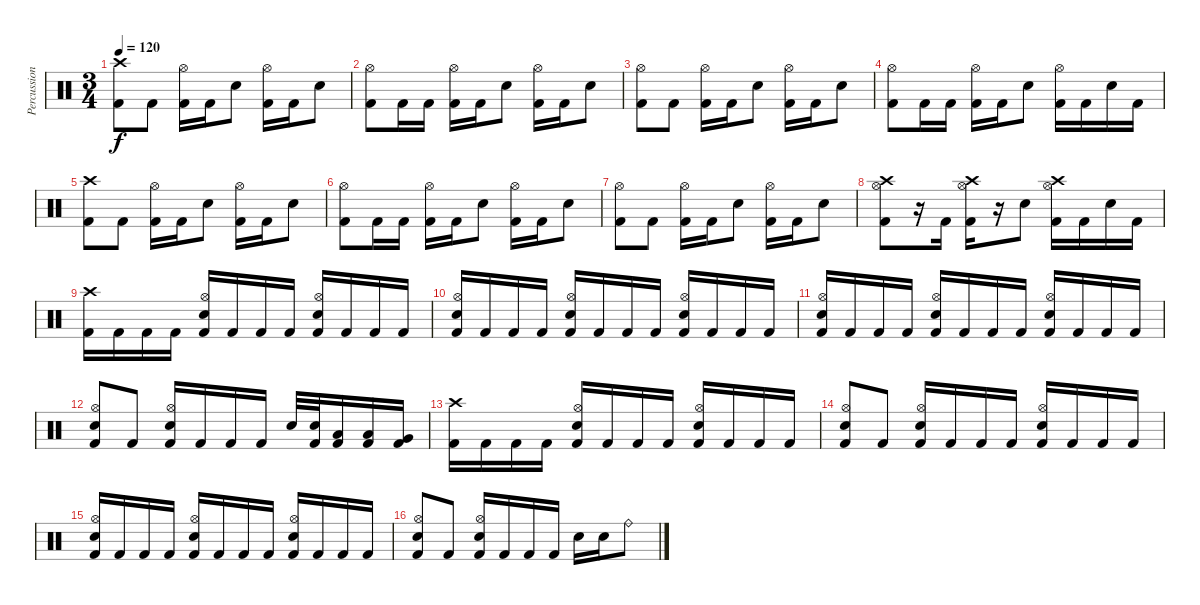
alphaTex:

\track ("Percussion" "Percussion") {instrument percussion}
\staff {score}
\articulation defaults
\ts (3 4)
\tempo 120
\clef neutral
\ks c
("Crash high (hit)" "Kick (hit) 2").8{dy f} "Kick (hit) 2".8 ("Hi-Hat (open)" "Kick (hit) 2").16 "Kick (hit) 2".16 "Electric Snare (hit)".8 ("Hi-Hat (open)" "Kick (hit) 2").16 "Kick (hit) 2".16 "Electric Snare (hit)".8 |
("Hi-Hat (open)" "Kick (hit) 2").8 "Kick (hit) 2".16 "Kick (hit) 2".16 ("Hi-Hat (open)" "Kick (hit) 2").16 "Kick (hit) 2".16 "Electric Snare (hit)".8 ("Hi-Hat (open)" "Kick (hit) 2").16 "Kick (hit) 2".16 "Electric Snare (hit)".8 |
("Hi-Hat (open)" "Kick (hit) 2").8 "Kick (hit) 2".8 ("Hi-Hat (open)" "Kick (hit) 2").16 "Kick (hit) 2".16 "Electric Snare (hit)".8 ("Hi-Hat (open)" "Kick (hit) 2").16 "Kick (hit) 2".16 "Electric Snare (hit)".8 |
("Hi-Hat (open)" "Kick (hit) 2").8 "Kick (hit) 2".16 "Kick (hit) 2".16 ("Hi-Hat (open)" "Kick (hit) 2").16 "Kick (hit) 2".16 "Electric Snare (hit)".8 ("Hi-Hat (open)" "Kick (hit) 2").16 "Kick (hit) 2".16 "Electric Snare (hit)".16 "Kick (hit) 2".16 |
("Crash high (hit)" "Kick (hit) 2").8 "Kick (hit) 2".8 ("Hi-Hat (open)" "Kick (hit) 2").16 "Kick (hit) 2".16 "Electric Snare (hit)".8 ("Hi-Hat (open)" "Kick (hit) 2").16 "Kick (hit) 2".16 "Electric Snare (hit)".8 |
("Hi-Hat (open)" "Kick (hit) 2").8 "Kick (hit) 2".16 "Kick (hit) 2".16 ("Hi-Hat (open)" "Kick (hit) 2").16 "Kick (hit) 2".16 "Electric Snare (hit)".8 ("Hi-Hat (open)" "Kick (hit) 2").16 "Kick (hit) 2".16 "Electric Snare (hit)".8 |
("Hi-Hat (open)" "Kick (hit) 2").8 "Kick (hit) 2".8 ("Hi-Hat (open)" "Kick (hit) 2").16 "Kick (hit) 2".16 "Electric Snare (hit)".8 ("Hi-Hat (open)" "Kick (hit) 2").16 "Kick (hit) 2".16 "Electric Snare (hit)".8 |
("Crash high (hit)" "Hi-Hat (open)" "Kick (hit) 2").8 r.16 "Kick (hit) 2".16 ("Crash high (hit)" "Hi-Hat (open)" "Kick (hit) 2").16 r.16 "Electric Snare (hit)".8 ("Crash high (hit)" "Hi-Hat (open)" "Kick (hit) 2").16 "Kick (hit) 2".16 "Electric Snare (hit)".16 "Kick (hit) 2".16 |
("Crash high (hit)" "Kick (hit) 2").16 "Kick (hit) 2".16 "Kick (hit) 2".16 "Kick (hit) 2".16 ("Hi-Hat (open)" "Electric Snare (hit)" "Kick (hit) 2").16 "Kick (hit) 2".16 "Kick (hit) 2".16 "Kick (hit) 2".16 ("Hi-Hat (open)" "Electric Snare (hit)" "Kick (hit) 2").16 "Kick (hit) 2".16 "Kick (hit) 2".16 "Kick (hit) 2".16 |
("Hi-Hat (open)" "Electric Snare (hit)" "Kick (hit) 2").16 "Kick (hit) 2".16 "Kick (hit) 2".16 "Kick (hit) 2".16 ("Hi-Hat (open)" "Electric Snare (hit)" "Kick (hit) 2").16 "Kick (hit) 2".16 "Kick (hit) 2".16 "Kick (hit) 2".16 ("Hi-Hat (open)" "Electric Snare (hit)" "Kick (hit) 2").16 "Kick (hit) 2".16 "Kick (hit) 2".16 "Kick (hit) 2".16 |
("Hi-Hat (open)" "Electric Snare (hit)" "Kick (hit) 2").16 "Kick (hit) 2".16 "Kick (hit) 2".16 "Kick (hit) 2".16 ("Hi-Hat (open)" "Electric Snare (hit)" "Kick (hit) 2").16 "Kick (hit) 2".16 "Kick (hit) 2".16 "Kick (hit) 2".16 ("Hi-Hat (open)" "Electric Snare (hit)" "Kick (hit) 2").16 "Kick (hit) 2".16 "Kick (hit) 2".16 "Kick (hit) 2".16 |
("Hi-Hat (open)" "Electric Snare (hit)" "Kick (hit) 2").8 "Kick (hit) 2".8 ("Hi-Hat (open)" "Electric Snare (hit)" "Kick (hit) 2").16 "Kick (hit) 2".16 "Kick (hit) 2".16 "Kick (hit) 2".16 "Electric Snare (hit)".32 ("Electric Snare (hit)" "Kick (hit) 2").32 ("Low Tom (hit)" "Kick (hit) 2").16 ("Low Tom (hit)" "Kick (hit) 2").16 ("Very Low Tom (hit)" "Kick (hit) 2").16 |
("Crash high (hit)" "Kick (hit) 2").16 "Kick (hit) 2".16 "Kick (hit) 2".16 "Kick (hit) 2".16 ("Hi-Hat (open)" "Electric Snare (hit)" "Kick (hit) 2").16 "Kick (hit) 2".16 "Kick (hit) 2".16 "Kick (hit) 2".16 ("Hi-Hat (open)" "Electric Snare (hit)" "Kick (hit) 2").16 "Kick (hit) 2".16 "Kick (hit) 2".16 "Kick (hit) 2".16 |
("Hi-Hat (open)" "Electric Snare (hit)" "Kick (hit) 2").8 "Kick (hit) 2".8 ("Hi-Hat (open)" "Electric Snare (hit)" "Kick (hit) 2").16 "Kick (hit) 2".16 "Kick (hit) 2".16 "Kick (hit) 2".16 ("Hi-Hat (open)" "Electric Snare (hit)" "Kick (hit) 2").16 "Kick (hit) 2".16 "Kick (hit) 2".16 "Kick (hit) 2".16 |
("Hi-Hat (open)" "Electric Snare (hit)" "Kick (hit) 2").16 "Kick (hit) 2".16 "Kick (hit) 2".16 "Kick (hit) 2".16 ("Hi-Hat (open)" "Electric Snare (hit)" "Kick (hit) 2").16 "Kick (hit) 2".16 "Kick (hit) 2".16 "Kick (hit) 2".16 ("Hi-Hat (open)" "Electric Snare (hit)" "Kick (hit) 2").16 "Kick (hit) 2".16 "Kick (hit) 2".16 "Kick (hit) 2".16 |
("Hi-Hat (open)" "Electric Snare (hit)" "Kick (hit) 2").8 "Kick (hit) 2".8 ("Hi-Hat (open)" "Electric Snare (hit)" "Kick (hit) 2").16 "Kick (hit) 2".16 "Kick (hit) 2".16 "Kick (hit) 2".16 "Electric Snare (hit)".16 "Electric Snare (hit)".16 "Ride (bell)".8
